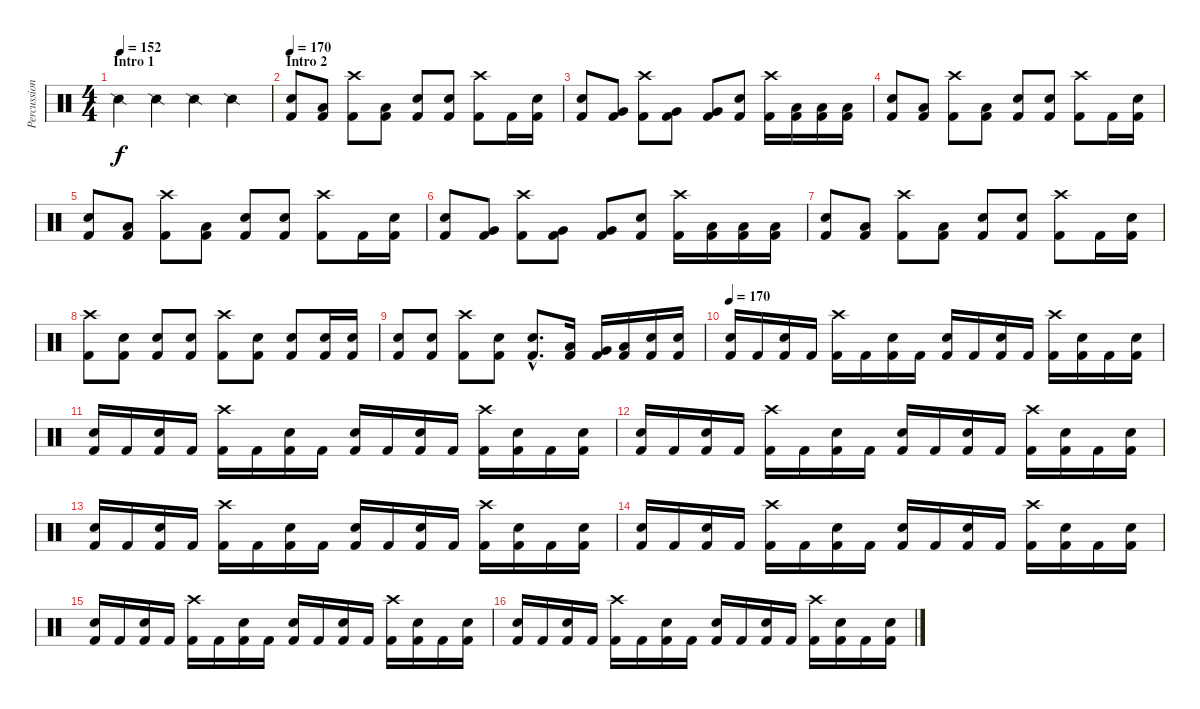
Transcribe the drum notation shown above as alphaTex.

\track ("Percussion" "Percussion") {instrument percussion}
\staff {score}
\articulation defaults
\ts (4 4)
\section ("" "Intro 1")
\tempo 152
\clef neutral
\ks c "Snare (side stick) 2".4{dy f} "Snare (side stick) 2".4 "Snare (side stick) 2".4 "Snare (side stick) 2".4
|
\section ("" "Intro 2")
\tempo 170
("Electric Snare (hit)" "Kick (hit) 2").8 ("Low Tom (hit)" "Kick (hit) 2").8 ("Crash high (hit)" "Kick (hit) 2").8 ("Low Tom (hit)" "Kick (hit) 2").8 ("Electric Snare (hit)" "Kick (hit) 2").8 ("Electric Snare (hit)" "Kick (hit) 2").8 ("Crash high (hit)" "Kick (hit) 2").8 "Kick (hit) 2".16 ("Electric Snare (hit)" "Kick (hit) 2").16 |
("Electric Snare (hit)" "Kick (hit) 2").8 ("Very Low Tom (hit)" "Kick (hit) 2").8 ("Crash high (hit)" "Kick (hit) 2").8 ("Very Low Tom (hit)" "Kick (hit) 2").8 ("Very Low Tom (hit)" "Kick (hit) 2").8 ("Electric Snare (hit)" "Kick (hit) 2").8 ("Crash high (hit)" "Kick (hit) 2").16 ("Low Tom (hit)" "Kick (hit) 2").16 ("Low Tom (hit)" "Kick (hit) 2").16 ("Low Tom (hit)" "Kick (hit) 2").16 |
("Electric Snare (hit)" "Kick (hit) 2").8 ("Low Tom (hit)" "Kick (hit) 2").8 ("Crash high (hit)" "Kick (hit) 2").8 ("Low Tom (hit)" "Kick (hit) 2").8 ("Electric Snare (hit)" "Kick (hit) 2").8 ("Electric Snare (hit)" "Kick (hit) 2").8 ("Crash high (hit)" "Kick (hit) 2").8 "Kick (hit) 2".16 ("Electric Snare (hit)" "Kick (hit) 2").16 |
("Electric Snare (hit)" "Kick (hit) 2").8 ("Low Tom (hit)" "Kick (hit) 2").8 ("Crash high (hit)" "Kick (hit) 2").8 ("Low Tom (hit)" "Kick (hit) 2").8 ("Electric Snare (hit)" "Kick (hit) 2").8 ("Electric Snare (hit)" "Kick (hit) 2").8 ("Crash high (hit)" "Kick (hit) 2").8 "Kick (hit) 2".16 ("Electric Snare (hit)" "Kick (hit) 2").16 |
("Electric Snare (hit)" "Kick (hit) 2").8 ("Very Low Tom (hit)" "Kick (hit) 2").8 ("Crash high (hit)" "Kick (hit) 2").8 ("Very Low Tom (hit)" "Kick (hit) 2").8 ("Very Low Tom (hit)" "Kick (hit) 2").8 ("Electric Snare (hit)" "Kick (hit) 2").8 ("Crash high (hit)" "Kick (hit) 2").16 ("Low Tom (hit)" "Kick (hit) 2").16 ("Low Tom (hit)" "Kick (hit) 2").16 ("Low Tom (hit)" "Kick (hit) 2").16 |
("Electric Snare (hit)" "Kick (hit) 2").8 ("Low Tom (hit)" "Kick (hit) 2").8 ("Crash high (hit)" "Kick (hit) 2").8 ("Low Tom (hit)" "Kick (hit) 2").8 ("Electric Snare (hit)" "Kick (hit) 2").8 ("Electric Snare (hit)" "Kick (hit) 2").8 ("Crash high (hit)" "Kick (hit) 2").8 "Kick (hit) 2".16 ("Electric Snare (hit)" "Kick (hit) 2").16 |
("Crash high (hit)" "Kick (hit) 2").8 ("Electric Snare (hit)" "Kick (hit) 2").8 ("Electric Snare (hit)" "Kick (hit) 2").8 ("Electric Snare (hit)" "Kick (hit) 2").8 ("Crash high (hit)" "Kick (hit) 2").8 ("Electric Snare (hit)" "Kick (hit) 2").8 ("Electric Snare (hit)" "Kick (hit) 2").8 ("Electric Snare (hit)" "Kick (hit) 2").16 ("Electric Snare (hit)" "Kick (hit) 2").16 |
("Electric Snare (hit)" "Kick (hit) 2").8 ("Electric Snare (hit)" "Kick (hit) 2").8 ("Crash high (hit)" "Kick (hit) 2").8 ("Electric Snare (hit)" "Kick (hit) 2").8 ("Electric Snare (hit)"{hac} "Kick (hit) 2"{hac}).8{d} ("Low Floor Tom (hit)" "Kick (hit) 2").16 ("Very Low Tom (hit)" "Kick (hit) 2").16 ("Low Tom (hit)" "Kick (hit) 2").16 ("Electric Snare (hit)" "Kick (hit) 2").16 ("Electric Snare (hit)" "Kick (hit) 2").16 |
\tempo 170
("Electric Snare (hit)" "Kick (hit) 2").16 "Kick (hit) 2".16 ("Electric Snare (hit)" "Kick (hit) 2").16 "Kick (hit) 2".16 ("Crash high (hit)" "Kick (hit) 2").16 "Kick (hit) 2".16 ("Electric Snare (hit)" "Kick (hit) 2").16 "Kick (hit) 2".16 ("Electric Snare (hit)" "Kick (hit) 2").16 "Kick (hit) 2".16 ("Electric Snare (hit)" "Kick (hit) 2").16 "Kick (hit) 2".16 ("Crash high (hit)" "Kick (hit) 2").16 ("Electric Snare (hit)" "Kick (hit) 2").16 "Kick (hit) 2".16 ("Electric Snare (hit)" "Kick (hit) 2").16 |
("Electric Snare (hit)" "Kick (hit) 2").16 "Kick (hit) 2".16 ("Electric Snare (hit)" "Kick (hit) 2").16 "Kick (hit) 2".16 ("Crash high (hit)" "Kick (hit) 2").16 "Kick (hit) 2".16 ("Electric Snare (hit)" "Kick (hit) 2").16 "Kick (hit) 2".16 ("Electric Snare (hit)" "Kick (hit) 2").16 "Kick (hit) 2".16 ("Electric Snare (hit)" "Kick (hit) 2").16 "Kick (hit) 2".16 ("Crash high (hit)" "Kick (hit) 2").16 ("Electric Snare (hit)" "Kick (hit) 2").16 "Kick (hit) 2".16 ("Electric Snare (hit)" "Kick (hit) 2").16 |
("Electric Snare (hit)" "Kick (hit) 2").16 "Kick (hit) 2".16 ("Electric Snare (hit)" "Kick (hit) 2").16 "Kick (hit) 2".16 ("Crash high (hit)" "Kick (hit) 2").16 "Kick (hit) 2".16 ("Electric Snare (hit)" "Kick (hit) 2").16 "Kick (hit) 2".16 ("Electric Snare (hit)" "Kick (hit) 2").16 "Kick (hit) 2".16 ("Electric Snare (hit)" "Kick (hit) 2").16 "Kick (hit) 2".16 ("Crash high (hit)" "Kick (hit) 2").16 ("Electric Snare (hit)" "Kick (hit) 2").16 "Kick (hit) 2".16 ("Electric Snare (hit)" "Kick (hit) 2").16 |
("Electric Snare (hit)" "Kick (hit) 2").16 "Kick (hit) 2".16 ("Electric Snare (hit)" "Kick (hit) 2").16 "Kick (hit) 2".16 ("Crash high (hit)" "Kick (hit) 2").16 "Kick (hit) 2".16 ("Electric Snare (hit)" "Kick (hit) 2").16 "Kick (hit) 2".16 ("Electric Snare (hit)" "Kick (hit) 2").16 "Kick (hit) 2".16 ("Electric Snare (hit)" "Kick (hit) 2").16 "Kick (hit) 2".16 ("Crash high (hit)" "Kick (hit) 2").16 ("Electric Snare (hit)" "Kick (hit) 2").16 "Kick (hit) 2".16 ("Electric Snare (hit)" "Kick (hit) 2").16 |
("Electric Snare (hit)" "Kick (hit) 2").16 "Kick (hit) 2".16 ("Electric Snare (hit)" "Kick (hit) 2").16 "Kick (hit) 2".16 ("Crash high (hit)" "Kick (hit) 2").16 "Kick (hit) 2".16 ("Electric Snare (hit)" "Kick (hit) 2").16 "Kick (hit) 2".16 ("Electric Snare (hit)" "Kick (hit) 2").16 "Kick (hit) 2".16 ("Electric Snare (hit)" "Kick (hit) 2").16 "Kick (hit) 2".16 ("Crash high (hit)" "Kick (hit) 2").16 ("Electric Snare (hit)" "Kick (hit) 2").16 "Kick (hit) 2".16 ("Electric Snare (hit)" "Kick (hit) 2").16 |
("Electric Snare (hit)" "Kick (hit) 2").16 "Kick (hit) 2".16 ("Electric Snare (hit)" "Kick (hit) 2").16 "Kick (hit) 2".16 ("Crash high (hit)" "Kick (hit) 2").16 "Kick (hit) 2".16 ("Electric Snare (hit)" "Kick (hit) 2").16 "Kick (hit) 2".16 ("Electric Snare (hit)" "Kick (hit) 2").16 "Kick (hit) 2".16 ("Electric Snare (hit)" "Kick (hit) 2").16 "Kick (hit) 2".16 ("Crash high (hit)" "Kick (hit) 2").16 ("Electric Snare (hit)" "Kick (hit) 2").16 "Kick (hit) 2".16 ("Electric Snare (hit)" "Kick (hit) 2").16 |
("Electric Snare (hit)" "Kick (hit) 2").16 "Kick (hit) 2".16 ("Electric Snare (hit)" "Kick (hit) 2").16 "Kick (hit) 2".16 ("Crash high (hit)" "Kick (hit) 2").16 "Kick (hit) 2".16 ("Electric Snare (hit)" "Kick (hit) 2").16 "Kick (hit) 2".16 ("Electric Snare (hit)" "Kick (hit) 2").16 "Kick (hit) 2".16 ("Electric Snare (hit)" "Kick (hit) 2").16 "Kick (hit) 2".16 ("Crash high (hit)" "Kick (hit) 2").16 ("Electric Snare (hit)" "Kick (hit) 2").16 "Kick (hit) 2".16 ("Electric Snare (hit)" "Kick (hit) 2").16
